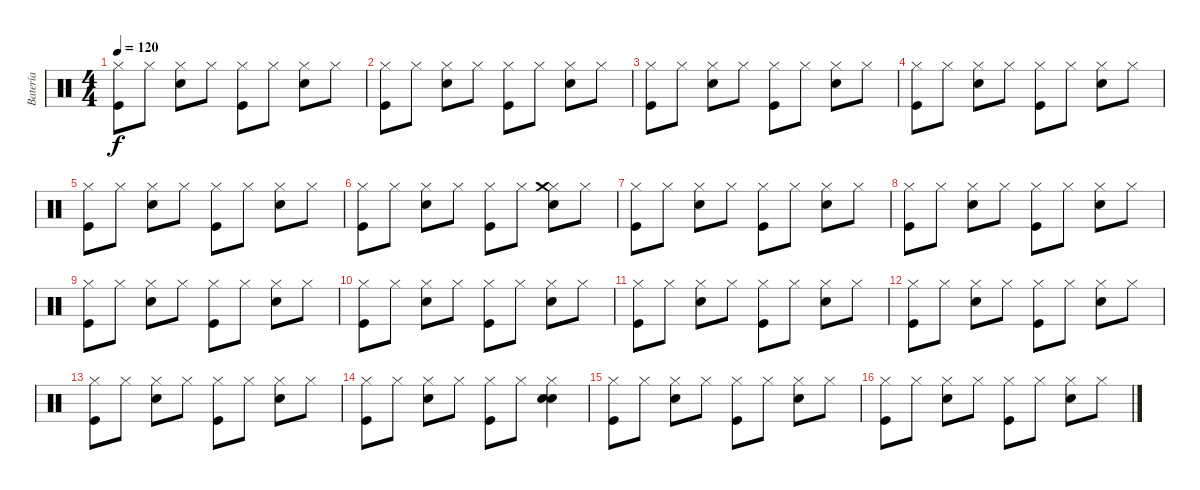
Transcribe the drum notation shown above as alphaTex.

\track ("Batería" "Batería") {instrument percussion}
\staff {score}
\articulation defaults
\ts (4 4)
\tempo 120
\clef neutral
\ks c
("Hi-Hat (closed)" "Kick (hit)").8{dy f} "Hi-Hat (closed)".8 ("Hi-Hat (closed)" "Snare (hit) 2").8 "Hi-Hat (closed)".8 ("Hi-Hat (closed)" "Kick (hit)").8 "Hi-Hat (closed)".8 ("Hi-Hat (closed)" "Snare (hit) 2").8 "Hi-Hat (closed)".8 |
("Hi-Hat (closed)" "Kick (hit)").8 "Hi-Hat (closed)".8 ("Hi-Hat (closed)" "Snare (hit) 2").8 "Hi-Hat (closed)".8 ("Hi-Hat (closed)" "Kick (hit)").8 "Hi-Hat (closed)".8 ("Hi-Hat (closed)" "Snare (hit) 2").8 "Hi-Hat (closed)".8 |
("Hi-Hat (closed)" "Kick (hit)").8 "Hi-Hat (closed)".8 ("Hi-Hat (closed)" "Snare (hit) 2").8 "Hi-Hat (closed)".8 ("Hi-Hat (closed)" "Kick (hit)").8 "Hi-Hat (closed)".8 ("Hi-Hat (closed)" "Snare (hit) 2").8 "Hi-Hat (closed)".8 |
("Hi-Hat (closed)" "Kick (hit)").8 "Hi-Hat (closed)".8 ("Hi-Hat (closed)" "Snare (hit) 2").8 "Hi-Hat (closed)".8 ("Hi-Hat (closed)" "Kick (hit)").8 "Hi-Hat (closed)".8 ("Hi-Hat (closed)" "Snare (hit) 2").8 "Hi-Hat (closed)".8 |
("Hi-Hat (closed)" "Kick (hit)").8 "Hi-Hat (closed)".8 ("Hi-Hat (closed)" "Snare (hit) 2").8 "Hi-Hat (closed)".8 ("Hi-Hat (closed)" "Kick (hit)").8 "Hi-Hat (closed)".8 ("Hi-Hat (closed)" "Snare (hit) 2").8 "Hi-Hat (closed)".8 |
("Hi-Hat (closed)" "Kick (hit)").8 "Hi-Hat (closed)".8 ("Hi-Hat (closed)" "Snare (hit) 2").8 "Hi-Hat (closed)".8 ("Hi-Hat (closed)" "Kick (hit)").8 "Hi-Hat (closed)".8 ("Hi-Hat (closed)" "Snare (hit) 2" "Crash medium (hit)").8 "Hi-Hat (closed)".8 |
("Hi-Hat (closed)" "Kick (hit)").8 "Hi-Hat (closed)".8 ("Hi-Hat (closed)" "Snare (hit) 2").8 "Hi-Hat (closed)".8 ("Hi-Hat (closed)" "Kick (hit)").8 "Hi-Hat (closed)".8 ("Hi-Hat (closed)" "Snare (hit) 2").8 "Hi-Hat (closed)".8 |
("Hi-Hat (closed)" "Kick (hit)").8 "Hi-Hat (closed)".8 ("Hi-Hat (closed)" "Snare (hit) 2").8 "Hi-Hat (closed)".8 ("Hi-Hat (closed)" "Kick (hit)").8 "Hi-Hat (closed)".8 ("Hi-Hat (closed)" "Snare (hit) 2").8 "Hi-Hat (closed)".8 |
("Hi-Hat (closed)" "Kick (hit)").8 "Hi-Hat (closed)".8 ("Hi-Hat (closed)" "Snare (hit) 2").8 "Hi-Hat (closed)".8 ("Hi-Hat (closed)" "Kick (hit)").8 "Hi-Hat (closed)".8 ("Hi-Hat (closed)" "Snare (hit) 2").8 "Hi-Hat (closed)".8 |
("Hi-Hat (closed)" "Kick (hit)").8 "Hi-Hat (closed)".8 ("Hi-Hat (closed)" "Snare (hit) 2").8 "Hi-Hat (closed)".8 ("Hi-Hat (closed)" "Kick (hit)").8 "Hi-Hat (closed)".8 ("Hi-Hat (closed)" "Snare (hit) 2").8 "Hi-Hat (closed)".8 |
("Hi-Hat (closed)" "Kick (hit)").8 "Hi-Hat (closed)".8 ("Hi-Hat (closed)" "Snare (hit) 2").8 "Hi-Hat (closed)".8 ("Hi-Hat (closed)" "Kick (hit)").8 "Hi-Hat (closed)".8 ("Hi-Hat (closed)" "Snare (hit) 2").8 "Hi-Hat (closed)".8 |
("Hi-Hat (closed)" "Kick (hit)").8 "Hi-Hat (closed)".8 ("Hi-Hat (closed)" "Snare (hit) 2").8 "Hi-Hat (closed)".8 ("Hi-Hat (closed)" "Kick (hit)").8 "Hi-Hat (closed)".8 ("Hi-Hat (closed)" "Snare (hit) 2").8 "Hi-Hat (closed)".8 |
("Hi-Hat (closed)" "Kick (hit)").8 "Hi-Hat (closed)".8 ("Hi-Hat (closed)" "Snare (hit) 2").8 "Hi-Hat (closed)".8 ("Hi-Hat (closed)" "Kick (hit)").8 "Hi-Hat (closed)".8 ("Hi-Hat (closed)" "Snare (hit) 2").8 "Hi-Hat (closed)".8 |
("Hi-Hat (closed)" "Kick (hit)").8 "Hi-Hat (closed)".8 ("Hi-Hat (closed)" "Snare (hit) 2").8 "Hi-Hat (closed)".8 ("Hi-Hat (closed)" "Kick (hit)").8 "Hi-Hat (closed)".8 ("Hi-Hat (closed)" "Snare (hit) 2" "Snare (hit) 2").4 |
("Hi-Hat (closed)" "Kick (hit)").8 "Hi-Hat (closed)".8 ("Hi-Hat (closed)" "Snare (hit) 2").8 "Hi-Hat (closed)".8 ("Hi-Hat (closed)" "Kick (hit)").8 "Hi-Hat (closed)".8 ("Hi-Hat (closed)" "Snare (hit) 2").8 "Hi-Hat (closed)".8 |
("Hi-Hat (closed)" "Kick (hit)").8 "Hi-Hat (closed)".8 ("Hi-Hat (closed)" "Snare (hit) 2").8 "Hi-Hat (closed)".8 ("Hi-Hat (closed)" "Kick (hit)").8 "Hi-Hat (closed)".8 ("Hi-Hat (closed)" "Snare (hit) 2").8 "Hi-Hat (closed)".8
